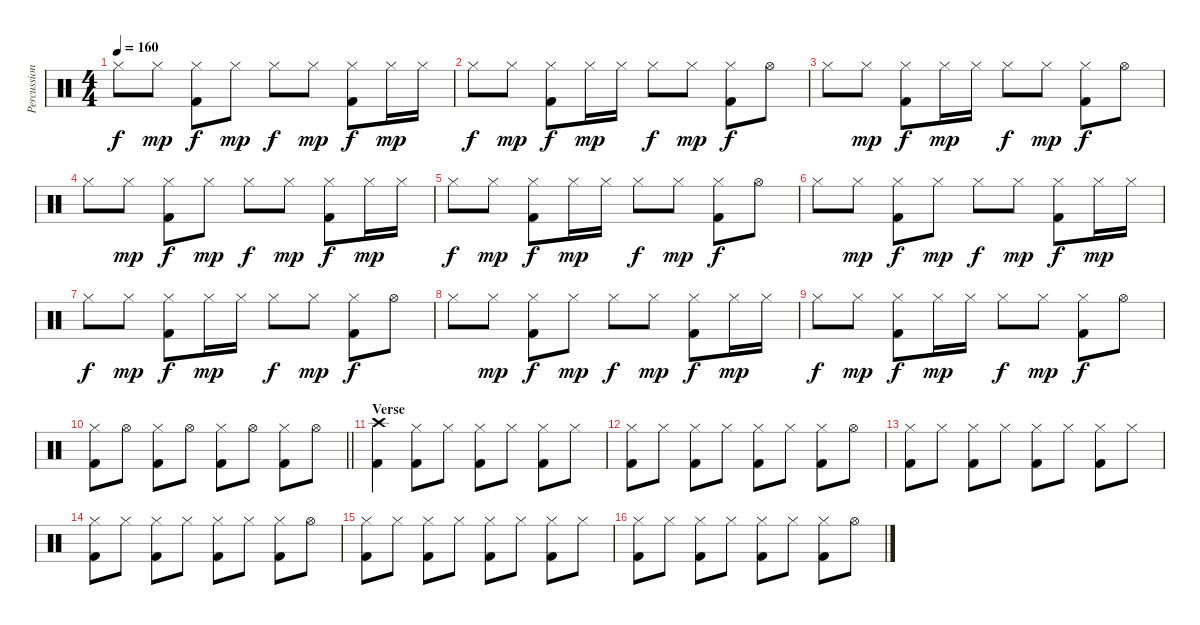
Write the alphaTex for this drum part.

\track ("Percussion" "Percussion") {instrument percussion}
\staff {score}
\articulation defaults
\ts (4 4)
\tempo 160
\clef neutral
\ks c "Hi-Hat (closed)".8{dy f} "Hi-Hat (closed)".8{dy mp}
("Hi-Hat (closed)" "Kick (hit) 2").8{dy f} "Hi-Hat (closed)".8{dy mp} "Hi-Hat (closed)".8{dy f} "Hi-Hat (closed)".8{dy mp} ("Hi-Hat (closed)" "Kick (hit) 2").8{dy f} "Hi-Hat (closed)".16{dy mp} "Hi-Hat (closed)".16 |
"Hi-Hat (closed)".8{dy f} "Hi-Hat (closed)".8{dy mp} ("Hi-Hat (closed)" "Kick (hit) 2").8{dy f} "Hi-Hat (closed)".16{dy mp} "Hi-Hat (closed)".16 "Hi-Hat (closed)".8{dy f} "Hi-Hat (closed)".8{dy mp} ("Hi-Hat (closed)" "Kick (hit) 2").8{dy f} "Hi-Hat (open)".8 |
"Hi-Hat (closed)".8 "Hi-Hat (closed)".8{dy mp} ("Hi-Hat (closed)" "Kick (hit) 2").8{dy f} "Hi-Hat (closed)".16{dy mp} "Hi-Hat (closed)".16 "Hi-Hat (closed)".8{dy f} "Hi-Hat (closed)".8{dy mp} ("Hi-Hat (closed)" "Kick (hit) 2").8{dy f} "Hi-Hat (open)".8 |
"Hi-Hat (closed)".8 "Hi-Hat (closed)".8{dy mp} ("Hi-Hat (closed)" "Kick (hit) 2").8{dy f} "Hi-Hat (closed)".8{dy mp} "Hi-Hat (closed)".8{dy f} "Hi-Hat (closed)".8{dy mp} ("Hi-Hat (closed)" "Kick (hit) 2").8{dy f} "Hi-Hat (closed)".16{dy mp} "Hi-Hat (closed)".16 |
"Hi-Hat (closed)".8{dy f} "Hi-Hat (closed)".8{dy mp} ("Hi-Hat (closed)" "Kick (hit) 2").8{dy f} "Hi-Hat (closed)".16{dy mp} "Hi-Hat (closed)".16 "Hi-Hat (closed)".8{dy f} "Hi-Hat (closed)".8{dy mp} ("Hi-Hat (closed)" "Kick (hit) 2").8{dy f} "Hi-Hat (open)".8 |
"Hi-Hat (closed)".8 "Hi-Hat (closed)".8{dy mp} ("Hi-Hat (closed)" "Kick (hit) 2").8{dy f} "Hi-Hat (closed)".8{dy mp} "Hi-Hat (closed)".8{dy f} "Hi-Hat (closed)".8{dy mp} ("Hi-Hat (closed)" "Kick (hit) 2").8{dy f} "Hi-Hat (closed)".16{dy mp} "Hi-Hat (closed)".16 |
"Hi-Hat (closed)".8{dy f} "Hi-Hat (closed)".8{dy mp} ("Hi-Hat (closed)" "Kick (hit) 2").8{dy f} "Hi-Hat (closed)".16{dy mp} "Hi-Hat (closed)".16 "Hi-Hat (closed)".8{dy f} "Hi-Hat (closed)".8{dy mp} ("Hi-Hat (closed)" "Kick (hit) 2").8{dy f} "Hi-Hat (open)".8 |
"Hi-Hat (closed)".8 "Hi-Hat (closed)".8{dy mp} ("Hi-Hat (closed)" "Kick (hit) 2").8{dy f} "Hi-Hat (closed)".8{dy mp} "Hi-Hat (closed)".8{dy f} "Hi-Hat (closed)".8{dy mp} ("Hi-Hat (closed)" "Kick (hit) 2").8{dy f} "Hi-Hat (closed)".16{dy mp} "Hi-Hat (closed)".16 |
"Hi-Hat (closed)".8{dy f} "Hi-Hat (closed)".8{dy mp} ("Hi-Hat (closed)" "Kick (hit) 2").8{dy f} "Hi-Hat (closed)".16{dy mp} "Hi-Hat (closed)".16 "Hi-Hat (closed)".8{dy f} "Hi-Hat (closed)".8{dy mp} ("Hi-Hat (closed)" "Kick (hit) 2").8{dy f} "Hi-Hat (open)".8 |
\barLineRight lightlight
("Hi-Hat (closed)" "Kick (hit) 2").8 "Hi-Hat (open)".8 ("Hi-Hat (closed)" "Kick (hit) 2").8 "Hi-Hat (open)".8 ("Hi-Hat (closed)" "Kick (hit) 2").8 "Hi-Hat (open)".8 ("Hi-Hat (closed)" "Kick (hit) 2").8 "Hi-Hat (open)".8 |
\section ("" "Verse")
("Crash high (hit)" "Kick (hit) 2").4 ("Hi-Hat (closed)" "Kick (hit) 2").8 "Hi-Hat (closed)".8 ("Hi-Hat (closed)" "Kick (hit) 2").8 "Hi-Hat (closed)".8 ("Hi-Hat (closed)" "Kick (hit) 2").8 "Hi-Hat (closed)".8 |
("Hi-Hat (closed)" "Kick (hit) 2").8 "Hi-Hat (closed)".8 ("Hi-Hat (closed)" "Kick (hit) 2").8 "Hi-Hat (closed)".8 ("Hi-Hat (closed)" "Kick (hit) 2").8 "Hi-Hat (closed)".8 ("Hi-Hat (closed)" "Kick (hit) 2").8 "Hi-Hat (open)".8 |
("Hi-Hat (closed)" "Kick (hit) 2").8 "Hi-Hat (closed)".8 ("Hi-Hat (closed)" "Kick (hit) 2").8 "Hi-Hat (closed)".8 ("Hi-Hat (closed)" "Kick (hit) 2").8 "Hi-Hat (closed)".8 ("Hi-Hat (closed)" "Kick (hit) 2").8 "Hi-Hat (closed)".8 |
("Hi-Hat (closed)" "Kick (hit) 2").8 "Hi-Hat (closed)".8 ("Hi-Hat (closed)" "Kick (hit) 2").8 "Hi-Hat (closed)".8 ("Hi-Hat (closed)" "Kick (hit) 2").8 "Hi-Hat (closed)".8 ("Hi-Hat (closed)" "Kick (hit) 2").8 "Hi-Hat (open)".8 |
("Hi-Hat (closed)" "Kick (hit) 2").8 "Hi-Hat (closed)".8 ("Hi-Hat (closed)" "Kick (hit) 2").8 "Hi-Hat (closed)".8 ("Hi-Hat (closed)" "Kick (hit) 2").8 "Hi-Hat (closed)".8 ("Hi-Hat (closed)" "Kick (hit) 2").8 "Hi-Hat (closed)".8 |
("Hi-Hat (closed)" "Kick (hit) 2").8 "Hi-Hat (closed)".8 ("Hi-Hat (closed)" "Kick (hit) 2").8 "Hi-Hat (closed)".8 ("Hi-Hat (closed)" "Kick (hit) 2").8 "Hi-Hat (closed)".8 ("Hi-Hat (closed)" "Kick (hit) 2").8 "Hi-Hat (open)".8
